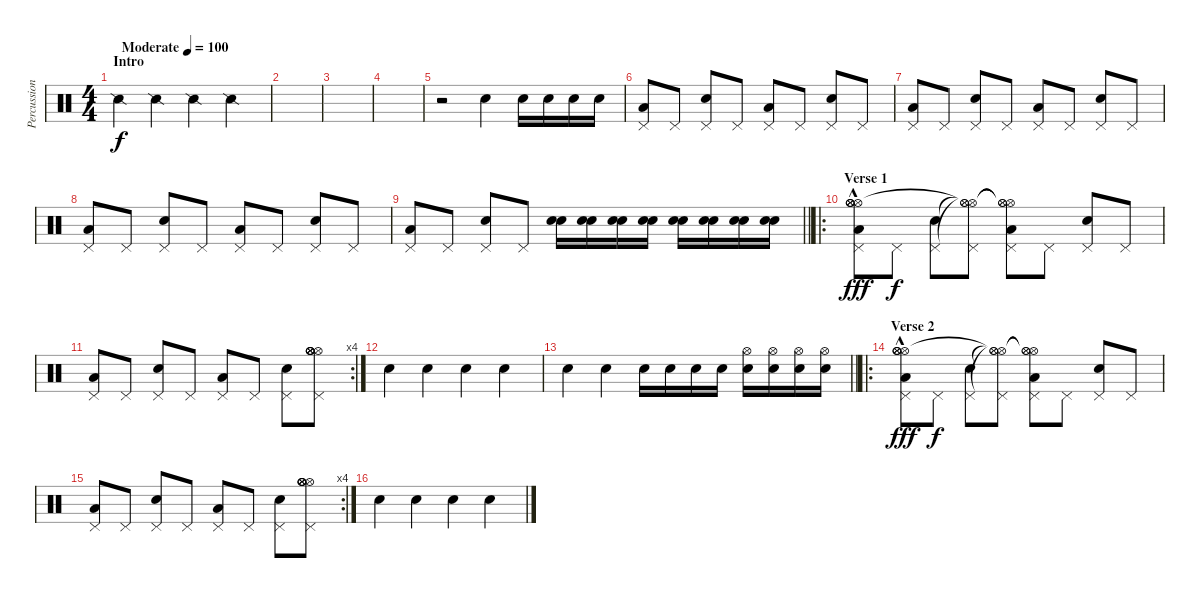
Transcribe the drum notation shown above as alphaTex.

\track ("Percussion" "Percussion") {instrument percussion}
\staff {score}
\articulation defaults
\ts (4 4)
\section ("" "Intro")
\tempo (100 "Moderate")
\clef neutral
\ks c "Snare (side stick) 2".4{dy f} "Snare (side stick) 2".4 "Snare (side stick) 2".4 "Snare (side stick) 2".4
|
|
|
|
r.2 "Electric Snare (hit)".4 "Electric Snare (hit)".16 "Electric Snare (hit)".16 "Electric Snare (hit)".16 "Electric Snare (hit)".16 |
("Pedal Hi-Hat (hit)" "Low Floor Tom (hit)").8 "Pedal Hi-Hat (hit)".8 ("Pedal Hi-Hat (hit)" "Electric Snare (hit)").8 "Pedal Hi-Hat (hit)".8 ("Pedal Hi-Hat (hit)" "Low Floor Tom (hit)").8 "Pedal Hi-Hat (hit)".8 ("Pedal Hi-Hat (hit)" "Electric Snare (hit)").8 "Pedal Hi-Hat (hit)".8 |
("Pedal Hi-Hat (hit)" "Low Floor Tom (hit)").8 "Pedal Hi-Hat (hit)".8 ("Pedal Hi-Hat (hit)" "Electric Snare (hit)").8 "Pedal Hi-Hat (hit)".8 ("Pedal Hi-Hat (hit)" "Low Floor Tom (hit)").8 "Pedal Hi-Hat (hit)".8 ("Pedal Hi-Hat (hit)" "Electric Snare (hit)").8 "Pedal Hi-Hat (hit)".8 |
("Pedal Hi-Hat (hit)" "Low Floor Tom (hit)").8 "Pedal Hi-Hat (hit)".8 ("Pedal Hi-Hat (hit)" "Electric Snare (hit)").8 "Pedal Hi-Hat (hit)".8 ("Pedal Hi-Hat (hit)" "Low Floor Tom (hit)").8 "Pedal Hi-Hat (hit)".8 ("Pedal Hi-Hat (hit)" "Electric Snare (hit)").8 "Pedal Hi-Hat (hit)".8 |
\barLineRight lightlight
("Pedal Hi-Hat (hit)" "Low Floor Tom (hit)").8 "Pedal Hi-Hat (hit)".8 ("Pedal Hi-Hat (hit)" "Electric Snare (hit)").8 "Pedal Hi-Hat (hit)".8 ("Electric Snare (hit)" "Electric Snare (hit)").16 ("Electric Snare (hit)" "Electric Snare (hit)").16 ("Electric Snare (hit)" "Electric Snare (hit)").16 ("Electric Snare (hit)" "Electric Snare (hit)").16 ("Electric Snare (hit)" "Electric Snare (hit)").16 ("Electric Snare (hit)" "Electric Snare (hit)").16 ("Electric Snare (hit)" "Electric Snare (hit)").16 ("Electric Snare (hit)" "Electric Snare (hit)").16 |
\ro
\section ("" "Verse 1")
("Hi-Hat (open)"{hac} "Hi-Hat (open)"{hac} "Hi-Hat (open)"{hac} "Pedal Hi-Hat (hit)" "Hi-Hat (open)" "Low Floor Tom (hit)").8{dy fff} "Pedal Hi-Hat (hit)".8{dy f} ("Pedal Hi-Hat (hit)" "Electric Snare (hit)").8 ("Hi-Hat (open)"{t} "Hi-Hat (open)"{t} "Hi-Hat (open)"{t} "Pedal Hi-Hat (hit)").8 ("Hi-Hat (open)"{t} "Hi-Hat (open)"{t} "Hi-Hat (open)"{t} "Pedal Hi-Hat (hit)" "Low Floor Tom (hit)").8 "Pedal Hi-Hat (hit)".8 ("Pedal Hi-Hat (hit)" "Electric Snare (hit)").8 "Pedal Hi-Hat (hit)".8 |
\rc 4
("Pedal Hi-Hat (hit)" "Low Floor Tom (hit)").8 "Pedal Hi-Hat (hit)".8 ("Pedal Hi-Hat (hit)" "Electric Snare (hit)").8 "Pedal Hi-Hat (hit)".8 ("Pedal Hi-Hat (hit)" "Low Floor Tom (hit)").8 "Pedal Hi-Hat (hit)".8 ("Pedal Hi-Hat (hit)" "Electric Snare (hit)").8 ("Hi-Hat (open)" "Hi-Hat (open)" "Hi-Hat (open)" "Pedal Hi-Hat (hit)" "Hi-Hat (open)" "Hi-Hat (open)").8 |
"Electric Snare (hit)".4 "Electric Snare (hit)".4 "Electric Snare (hit)".4 "Electric Snare (hit)".4 |
\barLineRight lightlight "Electric Snare (hit)".4 "Electric Snare (hit)".4 "Electric Snare (hit)".16 "Electric Snare (hit)".16 "Electric Snare (hit)".16 "Electric Snare (hit)".16
("Hi-Hat (open)" "Electric Snare (hit)").16 ("Hi-Hat (open)" "Electric Snare (hit)").16 ("Hi-Hat (open)" "Electric Snare (hit)").16 ("Hi-Hat (open)" "Electric Snare (hit)").16 |
\ro
\section ("" "Verse 2")
("Hi-Hat (open)"{hac} "Hi-Hat (open)"{hac} "Hi-Hat (open)"{hac} "Pedal Hi-Hat (hit)" "Hi-Hat (open)" "Low Floor Tom (hit)").8{dy fff} "Pedal Hi-Hat (hit)".8{dy f} ("Pedal Hi-Hat (hit)" "Electric Snare (hit)").8 ("Hi-Hat (open)"{t} "Hi-Hat (open)"{t} "Hi-Hat (open)"{t} "Pedal Hi-Hat (hit)").8 ("Hi-Hat (open)"{t} "Hi-Hat (open)"{t} "Hi-Hat (open)"{t} "Pedal Hi-Hat (hit)" "Low Floor Tom (hit)").8 "Pedal Hi-Hat (hit)".8 ("Pedal Hi-Hat (hit)" "Electric Snare (hit)").8 "Pedal Hi-Hat (hit)".8 |
\rc 4
("Pedal Hi-Hat (hit)" "Low Floor Tom (hit)").8 "Pedal Hi-Hat (hit)".8 ("Pedal Hi-Hat (hit)" "Electric Snare (hit)").8 "Pedal Hi-Hat (hit)".8 ("Pedal Hi-Hat (hit)" "Low Floor Tom (hit)").8 "Pedal Hi-Hat (hit)".8 ("Pedal Hi-Hat (hit)" "Electric Snare (hit)").8 ("Hi-Hat (open)" "Hi-Hat (open)" "Hi-Hat (open)" "Pedal Hi-Hat (hit)" "Hi-Hat (open)" "Hi-Hat (open)").8 |
"Electric Snare (hit)".4 "Electric Snare (hit)".4 "Electric Snare (hit)".4 "Electric Snare (hit)".4
